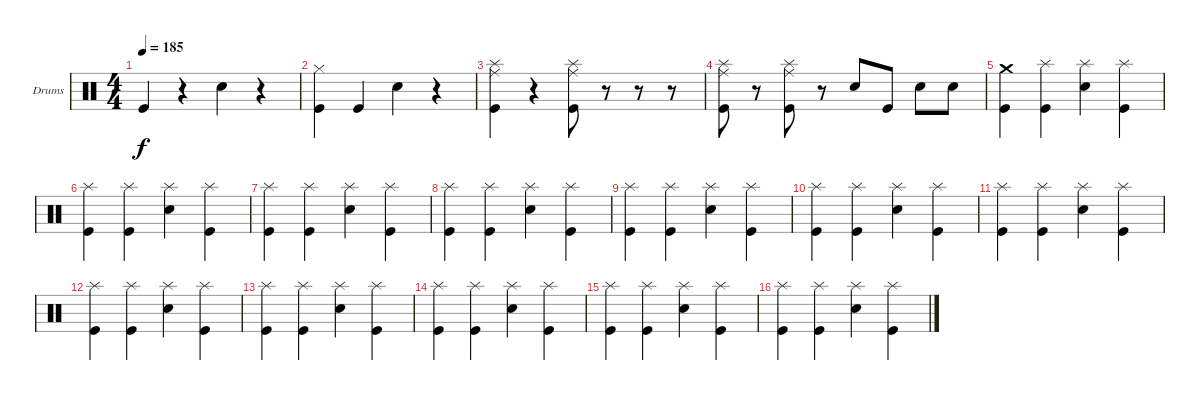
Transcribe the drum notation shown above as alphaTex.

\defaultSystemsLayout 4
\bracketExtendMode groupsimilarinstruments
\firstSystemTrackNameOrientation horizontal
\otherSystemsTrackNameOrientation horizontal
\track ("Chuck Comeau" "Drums") {instrument percussion}
\staff {score}
\articulation defaults
\ts (4 4)
\tempo 185
\clef neutral
\scale
0.333333
\ks c "Kick (hit)".4{dy f}
r.4 "Snare (hit) 2".4 r.4 |
\scale
0.333333 ("Hi-Hat (closed)" "Kick (hit)").4 "Kick (hit)".4 "Snare (hit) 2".4 r.4 |
\scale
0.333333 ("Splash (hit)" "Ride (middle)" "Kick (hit)").4 r.4 ("Splash (hit)" "Ride (middle)" "Kick (hit)").8 r.8 r.8 r.8 |
\scale
0.333333 ("Splash (hit)" "Ride (middle)" "Kick (hit)").8 r.8 ("Splash (hit)" "Ride (middle)" "Kick (hit)").8 r.8 "Snare (hit) 2".8 "Kick (hit)".8 "Snare (hit) 2".8 "Snare (hit) 2".8 |
\scale
0.333333 ("Crash medium (hit)" "Kick (hit)").4 ("Splash (hit)" "Kick (hit)").4 ("Splash (hit)" "Snare (hit) 2").4 ("Splash (hit)" "Kick (hit)").4 |
\scale
0.333333 ("Splash (hit)" "Kick (hit)").4 ("Splash (hit)" "Kick (hit)").4 ("Splash (hit)" "Snare (hit) 2").4 ("Splash (hit)" "Kick (hit)").4 |
\scale
0.333333 ("Splash (hit)" "Kick (hit)").4 ("Splash (hit)" "Kick (hit)").4 ("Splash (hit)" "Snare (hit) 2").4 ("Splash (hit)" "Kick (hit)").4 |
\scale
0.333333 ("Splash (hit)" "Kick (hit)").4 ("Splash (hit)" "Kick (hit)").4 ("Splash (hit)" "Snare (hit) 2").4 ("Splash (hit)" "Kick (hit)").4 |
\scale
0.333333 ("Splash (hit)" "Kick (hit)").4 ("Splash (hit)" "Kick (hit)").4 ("Splash (hit)" "Snare (hit) 2").4 ("Splash (hit)" "Kick (hit)").4 |
\scale
0.333333 ("Splash (hit)" "Kick (hit)").4 ("Splash (hit)" "Kick (hit)").4 ("Splash (hit)" "Snare (hit) 2").4 ("Splash (hit)" "Kick (hit)").4 |
\scale
0.333333 ("Splash (hit)" "Kick (hit)").4 ("Splash (hit)" "Kick (hit)").4 ("Splash (hit)" "Snare (hit) 2").4 ("Splash (hit)" "Kick (hit)").4 |
\scale
0.333333 ("Splash (hit)" "Kick (hit)").4 ("Splash (hit)" "Kick (hit)").4 ("Splash (hit)" "Snare (hit) 2").4 ("Splash (hit)" "Kick (hit)").4 |
\scale
0.333333 ("Splash (hit)" "Kick (hit)").4 ("Splash (hit)" "Kick (hit)").4 ("Splash (hit)" "Snare (hit) 2").4 ("Splash (hit)" "Kick (hit)").4 |
\scale
0.333333 ("Splash (hit)" "Kick (hit)").4 ("Splash (hit)" "Kick (hit)").4 ("Splash (hit)" "Snare (hit) 2").4 ("Splash (hit)" "Kick (hit)").4 |
\scale
0.333333 ("Splash (hit)" "Kick (hit)").4 ("Splash (hit)" "Kick (hit)").4 ("Splash (hit)" "Snare (hit) 2").4 ("Splash (hit)" "Kick (hit)").4 |
\scale
0.333333 ("Splash (hit)" "Kick (hit)").4 ("Splash (hit)" "Kick (hit)").4 ("Splash (hit)" "Snare (hit) 2").4 ("Splash (hit)" "Kick (hit)").4
